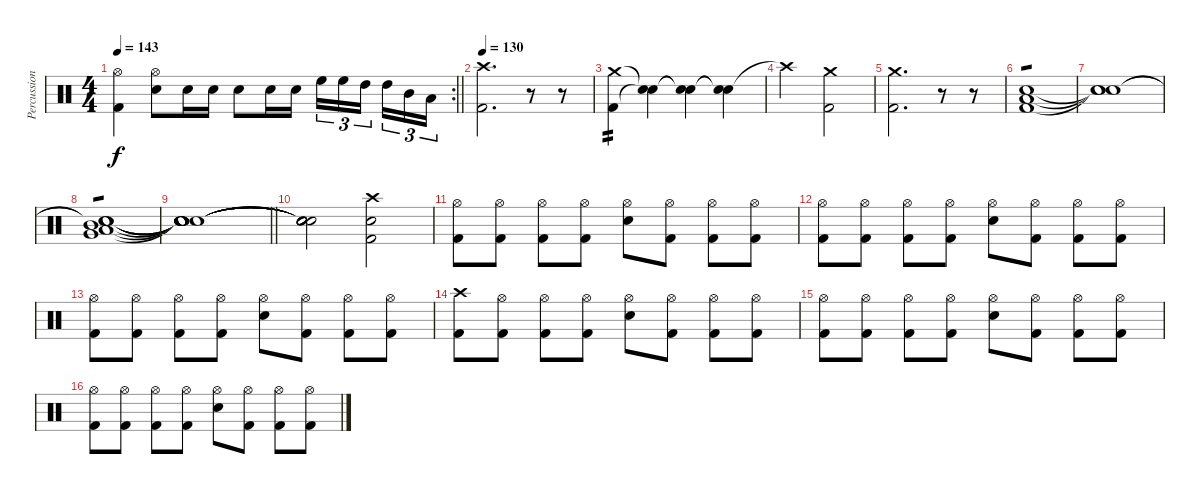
\track ("Percussion" "Percussion") {instrument percussion}
\staff {score}
\articulation defaults
\rc 2
\ts (4 4)
\tempo 143
\clef neutral
\barLineRight lightlight
\ks c
("Hi-Hat (open)" "Kick (hit) 2").4{dy f} ("Hi-Hat (open)" "Snare (hit) 2").8 "Snare (hit) 2".16 "Snare (hit) 2".16 "Snare (hit) 2".8 "Snare (hit) 2".16 "Snare (hit) 2".16 "High Floor Tom (hit)".16{tu (3 2)} "High Floor Tom (hit)".16{tu (3 2)} "High Tom (hit)".16{tu (3 2) beam splitsecondary} "High Tom (hit)".16{tu (3 2)} "Mid Tom (hit)".16{tu (3 2)} "Low Tom (hit)".16{tu (3 2)} |
\section ("" "")
\tempo 130
("Crash high (hit)" "Kick (hit) 2").2{d} r.8 r.8{volume 0} |
("Crash medium (hit)" "Kick (hit) 2").4{tp 2 volume 13} ("Snare (hit)"{t} "Snare (hit)"{t}).4 ("Snare (hit)"{t} "Snare (hit)"{t}).4 ("Snare (hit)"{t} "Snare (hit)"{t}).4 |
"Crash high (hit)"{t}.2 ("Crash medium (hit)" "Kick (hit) 2").2 |
("Crash medium (hit)" "Kick (hit) 2").2{d} r.8 r.8{volume 0} |
("Low Floor Tom (hit)" "Snare (hit) 2" "Kick (hit) 2").1{tp 1 volume 13} |
("Snare (hit)"{t} "Snare (hit)"{t} "Snare (hit)"{t}).1 |
("Low Tom (hit)" "Snare (hit)"{t} "Snare (hit)"{t} "Snare (hit)" "Mid Tom (hit)" "Very Low Tom (hit)").1{tp 1} |
\barLineRight lightlight
("Snare (hit)"{t} "Snare (hit)"{t} "Snare (hit)"{t} "Snare (hit)"{t} "Snare (hit)"{t} "Snare (hit)"{t}).1 |
\section ("" "")
("Snare (hit)"{t} "Snare (hit)"{t} "Snare (hit)"{t} "Snare (hit)"{t} "Snare (hit)"{t} "Snare (hit)"{t}).2 ("Crash high (hit)" "Kick (hit) 2" "Snare (hit) 2").2 |
("Hi-Hat (open)" "Kick (hit) 2").8 ("Hi-Hat (open)" "Kick (hit) 2").8 ("Hi-Hat (open)" "Kick (hit) 2").8 ("Hi-Hat (open)" "Kick (hit) 2").8 ("Hi-Hat (open)" "Snare (hit) 2").8 ("Hi-Hat (open)" "Kick (hit) 2").8 ("Hi-Hat (open)" "Kick (hit) 2").8 ("Hi-Hat (open)" "Kick (hit) 2").8 |
("Hi-Hat (open)" "Kick (hit) 2").8 ("Hi-Hat (open)" "Kick (hit) 2").8 ("Hi-Hat (open)" "Kick (hit) 2").8 ("Hi-Hat (open)" "Kick (hit) 2").8 ("Hi-Hat (open)" "Snare (hit) 2").8 ("Hi-Hat (open)" "Kick (hit) 2").8 ("Hi-Hat (open)" "Kick (hit) 2").8 ("Hi-Hat (open)" "Kick (hit) 2").8 |
("Hi-Hat (open)" "Kick (hit) 2").8 ("Hi-Hat (open)" "Kick (hit) 2").8 ("Hi-Hat (open)" "Kick (hit) 2").8 ("Hi-Hat (open)" "Kick (hit) 2").8 ("Hi-Hat (open)" "Snare (hit) 2").8 ("Hi-Hat (open)" "Kick (hit) 2").8 ("Hi-Hat (open)" "Kick (hit) 2").8 ("Hi-Hat (open)" "Kick (hit) 2").8 |
("Crash high (hit)" "Kick (hit) 2").8 ("Hi-Hat (open)" "Kick (hit) 2").8 ("Hi-Hat (open)" "Kick (hit) 2").8 ("Hi-Hat (open)" "Kick (hit) 2").8 ("Hi-Hat (open)" "Snare (hit) 2").8 ("Hi-Hat (open)" "Kick (hit) 2").8 ("Hi-Hat (open)" "Kick (hit) 2").8 ("Hi-Hat (open)" "Kick (hit) 2").8 |
("Hi-Hat (open)" "Kick (hit) 2").8 ("Hi-Hat (open)" "Kick (hit) 2").8 ("Hi-Hat (open)" "Kick (hit) 2").8 ("Hi-Hat (open)" "Kick (hit) 2").8 ("Hi-Hat (open)" "Snare (hit) 2").8 ("Hi-Hat (open)" "Kick (hit) 2").8 ("Hi-Hat (open)" "Kick (hit) 2").8 ("Hi-Hat (open)" "Kick (hit) 2").8 |
("Hi-Hat (open)" "Kick (hit) 2").8 ("Hi-Hat (open)" "Kick (hit) 2").8 ("Hi-Hat (open)" "Kick (hit) 2").8 ("Hi-Hat (open)" "Kick (hit) 2").8 ("Hi-Hat (open)" "Snare (hit) 2").8 ("Hi-Hat (open)" "Kick (hit) 2").8 ("Hi-Hat (open)" "Kick (hit) 2").8 ("Hi-Hat (open)" "Kick (hit) 2").8
